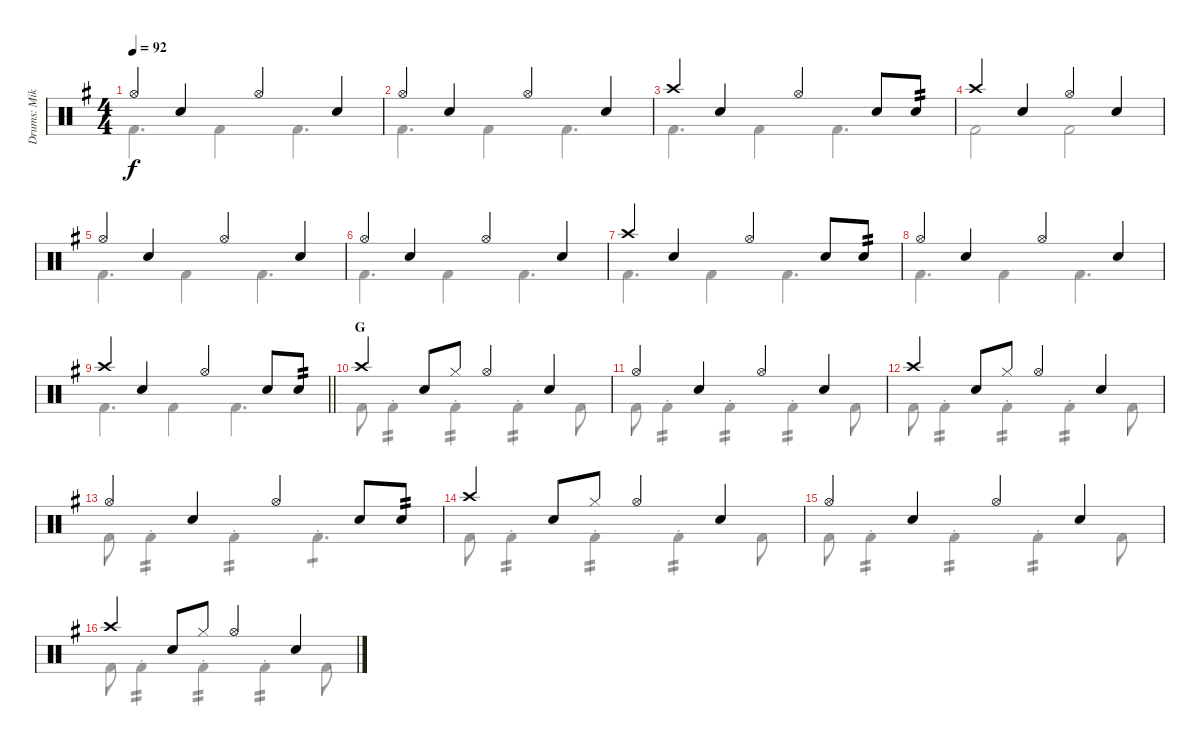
\track ("Drums: Mike" "Drums: Mik") {instrument percussion}
\staff {score}
\articulation defaults
\voice
\ts (4 4)
\tempo 92
\clef neutral
\ks g "Hi-Hat (open)".4{dy f} "Snare (hit) 2".4 "Hi-Hat (open)".4{beam merge} "Snare (hit) 2".4
|
"Hi-Hat (open)".4 "Snare (hit) 2".4 "Hi-Hat (open)".4{beam merge} "Snare (hit) 2".4 |
"Crash high (hit)".4 "Snare (hit) 2".4 "Hi-Hat (open)".4{beam merge} "Snare (hit) 2".8 "Electric Snare (hit)".8{tp 2} |
"Crash high (hit)".4 "Snare (hit) 2".4 "Hi-Hat (open)".4{beam merge} "Snare (hit) 2".4 |
"Hi-Hat (open)".4 "Snare (hit) 2".4 "Hi-Hat (open)".4{beam merge} "Snare (hit) 2".4 |
"Hi-Hat (open)".4 "Snare (hit) 2".4 "Hi-Hat (open)".4{beam merge} "Snare (hit) 2".4 |
"Crash high (hit)".4 "Snare (hit) 2".4 "Hi-Hat (open)".4{beam merge} "Snare (hit) 2".8 "Electric Snare (hit)".8{tp 2} |
"Hi-Hat (open)".4 "Snare (hit) 2".4 "Hi-Hat (open)".4{beam merge} "Snare (hit) 2".4 |
\barLineRight lightlight "Crash high (hit)".4 "Snare (hit) 2".4 "Hi-Hat (open)".4{beam merge} "Snare (hit) 2".8 "Electric Snare (hit)".8{tp 2}
|
\section ("" "G")
"Crash high (hit)".4 "Snare (hit) 2".8 "Hi-Hat (closed)".8 "Hi-Hat (open)".4{beam merge} "Snare (hit) 2".4 |
"Hi-Hat (open)".4 "Snare (hit) 2".4 "Hi-Hat (open)".4{beam merge} "Snare (hit) 2".4 |
"Crash high (hit)".4 "Snare (hit) 2".8 "Hi-Hat (closed)".8 "Hi-Hat (open)".4{beam merge} "Snare (hit) 2".4 |
"Hi-Hat (open)".4 "Snare (hit) 2".4 "Hi-Hat (open)".4{beam merge} "Snare (hit) 2".8 "Electric Snare (hit)".8{tp 2} |
"Crash high (hit)".4 "Snare (hit) 2".8 "Hi-Hat (closed)".8 "Hi-Hat (open)".4{beam merge} "Snare (hit) 2".4 |
"Hi-Hat (open)".4 "Snare (hit) 2".4 "Hi-Hat (open)".4{beam merge} "Snare (hit) 2".4 |
"Crash high (hit)".4 "Snare (hit) 2".8 "Hi-Hat (closed)".8 "Hi-Hat (open)".4{beam merge} "Snare (hit) 2".4
\voice
\clef neutral
\ottava regular
\simile none
\ks g "Kick (hit) 2".4{d dy f} "Kick (hit) 2".4 "Kick (hit) 2".4{d}
|
"Kick (hit) 2".4{d} "Kick (hit) 2".4 "Kick (hit) 2".4{d} |
"Kick (hit) 2".4{d} "Kick (hit) 2".4 "Kick (hit) 2".4{d} |
"Kick (hit) 2".2 "Kick (hit) 2".2 |
"Kick (hit) 2".4{d} "Kick (hit) 2".4 "Kick (hit) 2".4{d} |
"Kick (hit) 2".4{d} "Kick (hit) 2".4 "Kick (hit) 2".4{d} |
"Kick (hit) 2".4{d} "Kick (hit) 2".4 "Kick (hit) 2".4{d} |
"Kick (hit) 2".4{d} "Kick (hit) 2".4 "Kick (hit) 2".4{d} |
\barLineRight lightlight "Kick (hit) 2".4{d} "Kick (hit) 2".4 "Kick (hit) 2".4{d}
|
"Kick (hit) 2".8 "Kick (hit) 2"{st}.4{tp 2} "Kick (hit) 2"{st}.4{tp 2} "Kick (hit) 2"{st}.4{tp 2} "Kick (hit) 2".8 |
"Kick (hit) 2".8 "Kick (hit) 2"{st}.4{tp 2} "Kick (hit) 2"{st}.4{tp 2} "Kick (hit) 2"{st}.4{tp 2} "Kick (hit) 2".8 |
"Kick (hit) 2".8 "Kick (hit) 2"{st}.4{tp 2} "Kick (hit) 2"{st}.4{tp 2} "Kick (hit) 2"{st}.4{tp 2} "Kick (hit) 2".8 |
"Kick (hit) 2".8 "Kick (hit) 2"{st}.4{tp 2} "Kick (hit) 2"{st}.4{tp 2} "Kick (hit) 2"{st}.4{d tp 1} |
"Kick (hit) 2".8 "Kick (hit) 2"{st}.4{tp 2} "Kick (hit) 2"{st}.4{tp 2} "Kick (hit) 2"{st}.4{tp 2} "Kick (hit) 2".8 |
"Kick (hit) 2".8 "Kick (hit) 2"{st}.4{tp 2} "Kick (hit) 2"{st}.4{tp 2} "Kick (hit) 2"{st}.4{tp 2} "Kick (hit) 2".8 |
"Kick (hit) 2".8 "Kick (hit) 2"{st}.4{tp 2} "Kick (hit) 2"{st}.4{tp 2} "Kick (hit) 2"{st}.4{tp 2} "Kick (hit) 2".8
